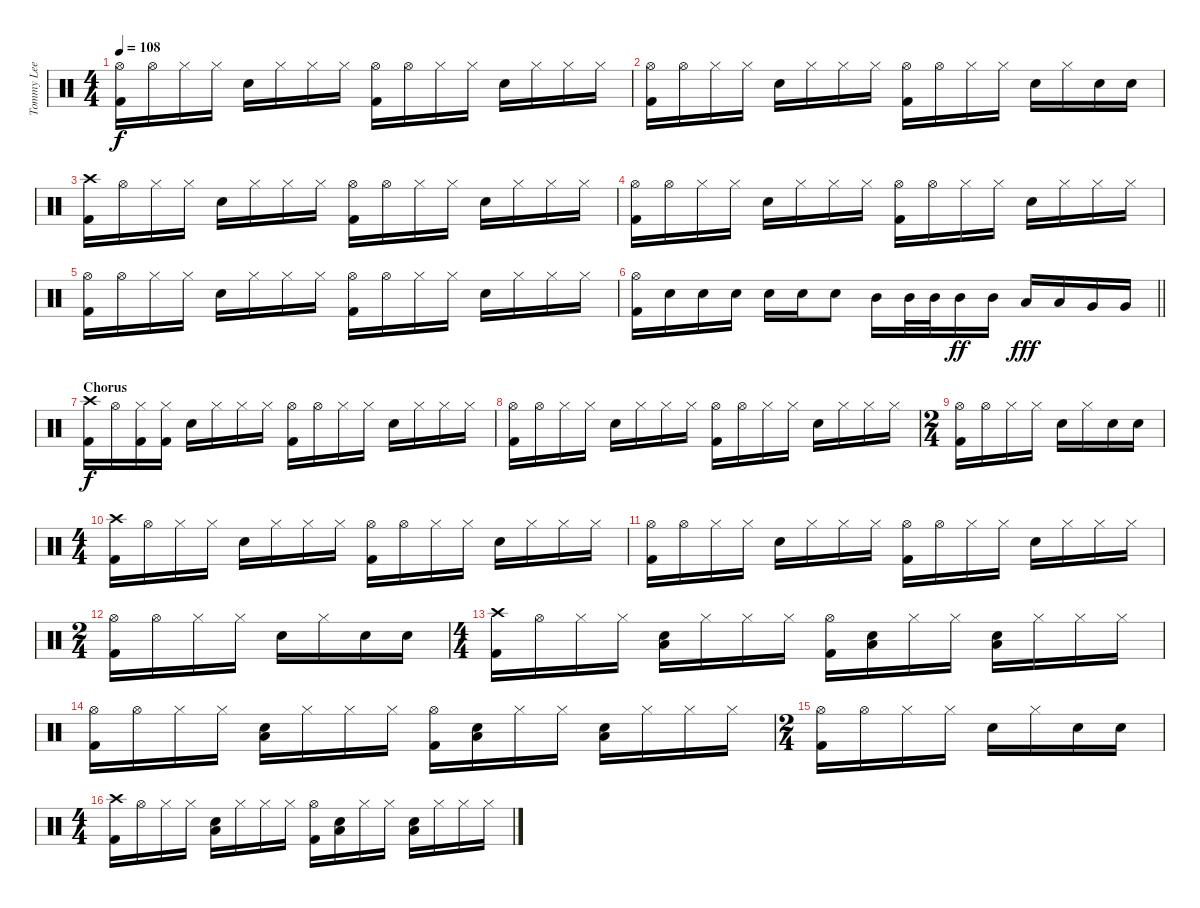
\track ("Tommy Lee - Drums" "Tommy Lee ") {instrument percussion}
\staff {score}
\articulation defaults
\ts (4 4)
\tempo 108
\clef neutral
\ks c
("Hi-Hat (open)" "Kick (hit) 2").16{dy f} "Hi-Hat (open)".16 "Hi-Hat (closed)".16 "Hi-Hat (closed)".16 "Snare (hit) 2".16 "Hi-Hat (closed)".16 "Hi-Hat (closed)".16 "Hi-Hat (closed)".16 ("Hi-Hat (open)" "Kick (hit) 2").16 "Hi-Hat (open)".16 "Hi-Hat (closed)".16 "Hi-Hat (closed)".16 "Snare (hit) 2".16 "Hi-Hat (closed)".16 "Hi-Hat (closed)".16 "Hi-Hat (closed)".16 |
("Hi-Hat (open)" "Kick (hit) 2").16 "Hi-Hat (open)".16 "Hi-Hat (closed)".16 "Hi-Hat (closed)".16 "Snare (hit) 2".16 "Hi-Hat (closed)".16 "Hi-Hat (closed)".16 "Hi-Hat (closed)".16 ("Hi-Hat (open)" "Kick (hit) 2").16 "Hi-Hat (open)".16 "Hi-Hat (closed)".16 "Hi-Hat (closed)".16 "Snare (hit) 2".16 "Hi-Hat (closed)".16 "Snare (hit) 2".16 "Snare (hit) 2".16 |
("Crash high (hit)" "Kick (hit) 2").16 "Hi-Hat (open)".16 "Hi-Hat (closed)".16 "Hi-Hat (closed)".16 "Snare (hit) 2".16 "Hi-Hat (closed)".16 "Hi-Hat (closed)".16 "Hi-Hat (closed)".16 ("Hi-Hat (open)" "Kick (hit) 2").16 "Hi-Hat (open)".16 "Hi-Hat (closed)".16 "Hi-Hat (closed)".16 "Snare (hit) 2".16 "Hi-Hat (closed)".16 "Hi-Hat (closed)".16 "Hi-Hat (closed)".16 |
("Hi-Hat (open)" "Kick (hit) 2").16 "Hi-Hat (open)".16 "Hi-Hat (closed)".16 "Hi-Hat (closed)".16 "Snare (hit) 2".16 "Hi-Hat (closed)".16 "Hi-Hat (closed)".16 "Hi-Hat (closed)".16 ("Hi-Hat (open)" "Kick (hit) 2").16 "Hi-Hat (open)".16 "Hi-Hat (closed)".16 "Hi-Hat (closed)".16 "Snare (hit) 2".16 "Hi-Hat (closed)".16 "Hi-Hat (closed)".16 "Hi-Hat (closed)".16 |
("Hi-Hat (open)" "Kick (hit) 2").16 "Hi-Hat (open)".16 "Hi-Hat (closed)".16 "Hi-Hat (closed)".16 "Snare (hit) 2".16 "Hi-Hat (closed)".16 "Hi-Hat (closed)".16 "Hi-Hat (closed)".16 ("Hi-Hat (open)" "Kick (hit) 2").16 "Hi-Hat (open)".16 "Hi-Hat (closed)".16 "Hi-Hat (closed)".16 "Snare (hit) 2".16 "Hi-Hat (closed)".16 "Hi-Hat (closed)".16 "Hi-Hat (closed)".16 |
\barLineRight lightlight
("Hi-Hat (open)" "Kick (hit) 2").16 "Snare (hit) 2".16 "Snare (hit) 2".16 "Snare (hit) 2".16 "Snare (hit) 2".16 "Snare (hit) 2".16 "Snare (hit) 2".8 "Mid Tom (hit)".16 "Mid Tom (hit)".32 "Mid Tom (hit)".32 "Mid Tom (hit)".16{dy ff} "Mid Tom (hit)".16 "Low Tom (hit)".16{dy fff} "Low Tom (hit)".16 "Very Low Tom (hit)".16 "Very Low Tom (hit)".16 |
\section ("" "Chorus")
("Crash high (hit)" "Kick (hit) 2").16{dy f} "Hi-Hat (open)".16 ("Hi-Hat (closed)" "Kick (hit) 2").16 ("Hi-Hat (closed)" "Kick (hit) 2").16 "Snare (hit) 2".16 "Hi-Hat (closed)".16 "Hi-Hat (closed)".16 "Hi-Hat (closed)".16 ("Hi-Hat (open)" "Kick (hit) 2").16 "Hi-Hat (open)".16 "Hi-Hat (closed)".16 "Hi-Hat (closed)".16 "Snare (hit) 2".16 "Hi-Hat (closed)".16 "Hi-Hat (closed)".16 "Hi-Hat (closed)".16 |
("Hi-Hat (open)" "Kick (hit) 2").16 "Hi-Hat (open)".16 "Hi-Hat (closed)".16 "Hi-Hat (closed)".16 "Snare (hit) 2".16 "Hi-Hat (closed)".16 "Hi-Hat (closed)".16 "Hi-Hat (closed)".16 ("Hi-Hat (open)" "Kick (hit) 2").16 "Hi-Hat (open)".16 "Hi-Hat (closed)".16 "Hi-Hat (closed)".16 "Snare (hit) 2".16 "Hi-Hat (closed)".16 "Hi-Hat (closed)".16 "Hi-Hat (closed)".16 |
\ts (2 4)
("Hi-Hat (open)" "Kick (hit) 2").16 "Hi-Hat (open)".16 "Hi-Hat (closed)".16 "Hi-Hat (closed)".16 "Snare (hit) 2".16 "Hi-Hat (closed)".16 "Snare (hit) 2".16 "Snare (hit) 2".16 |
\ts (4 4)
("Crash high (hit)" "Kick (hit) 2").16 "Hi-Hat (open)".16 "Hi-Hat (closed)".16 "Hi-Hat (closed)".16 "Snare (hit) 2".16 "Hi-Hat (closed)".16 "Hi-Hat (closed)".16 "Hi-Hat (closed)".16 ("Hi-Hat (open)" "Kick (hit) 2").16 "Hi-Hat (open)".16 "Hi-Hat (closed)".16 "Hi-Hat (closed)".16 "Snare (hit) 2".16 "Hi-Hat (closed)".16 "Hi-Hat (closed)".16 "Hi-Hat (closed)".16 |
("Hi-Hat (open)" "Kick (hit) 2").16 "Hi-Hat (open)".16 "Hi-Hat (closed)".16 "Hi-Hat (closed)".16 "Snare (hit) 2".16 "Hi-Hat (closed)".16 "Hi-Hat (closed)".16 "Hi-Hat (closed)".16 ("Hi-Hat (open)" "Kick (hit) 2").16 "Hi-Hat (open)".16 "Hi-Hat (closed)".16 "Hi-Hat (closed)".16 "Snare (hit) 2".16 "Hi-Hat (closed)".16 "Hi-Hat (closed)".16 "Hi-Hat (closed)".16 |
\ts (2 4)
("Hi-Hat (open)" "Kick (hit) 2").16 "Hi-Hat (open)".16 "Hi-Hat (closed)".16 "Hi-Hat (closed)".16 "Snare (hit) 2".16 "Hi-Hat (closed)".16 "Snare (hit) 2".16 "Snare (hit) 2".16 |
\ts (4 4)
("Crash high (hit)" "Kick (hit) 2").16 "Hi-Hat (open)".16 "Hi-Hat (closed)".16 "Hi-Hat (closed)".16 ("Snare (hit) 2" "Low Floor Tom (hit)").16 "Hi-Hat (closed)".16 "Hi-Hat (closed)".16 "Hi-Hat (closed)".16 ("Hi-Hat (open)" "Kick (hit) 2").16 ("Snare (hit) 2" "Low Floor Tom (hit)").16 "Hi-Hat (closed)".16 "Hi-Hat (closed)".16 ("Snare (hit) 2" "Low Floor Tom (hit)").16 "Hi-Hat (closed)".16 "Hi-Hat (closed)".16 "Hi-Hat (closed)".16 |
("Hi-Hat (open)" "Kick (hit) 2").16 "Hi-Hat (open)".16 "Hi-Hat (closed)".16 "Hi-Hat (closed)".16 ("Snare (hit) 2" "Low Floor Tom (hit)").16 "Hi-Hat (closed)".16 "Hi-Hat (closed)".16 "Hi-Hat (closed)".16 ("Hi-Hat (open)" "Kick (hit) 2").16 ("Snare (hit) 2" "Low Floor Tom (hit)").16 "Hi-Hat (closed)".16 "Hi-Hat (closed)".16 ("Snare (hit) 2" "Low Floor Tom (hit)").16 "Hi-Hat (closed)".16 "Hi-Hat (closed)".16 "Hi-Hat (closed)".16 |
\ts (2 4)
("Hi-Hat (open)" "Kick (hit) 2").16 "Hi-Hat (open)".16 "Hi-Hat (closed)".16 "Hi-Hat (closed)".16 "Snare (hit) 2".16 "Hi-Hat (closed)".16 "Snare (hit) 2".16 "Snare (hit) 2".16 |
\ts (4 4)
("Crash high (hit)" "Kick (hit) 2").16 "Hi-Hat (open)".16 "Hi-Hat (closed)".16 "Hi-Hat (closed)".16 ("Snare (hit) 2" "Low Floor Tom (hit)").16 "Hi-Hat (closed)".16 "Hi-Hat (closed)".16 "Hi-Hat (closed)".16 ("Hi-Hat (open)" "Kick (hit) 2").16 ("Snare (hit) 2" "Low Floor Tom (hit)").16 "Hi-Hat (closed)".16 "Hi-Hat (closed)".16 ("Snare (hit) 2" "Low Floor Tom (hit)").16 "Hi-Hat (closed)".16 "Hi-Hat (closed)".16 "Hi-Hat (closed)".16
